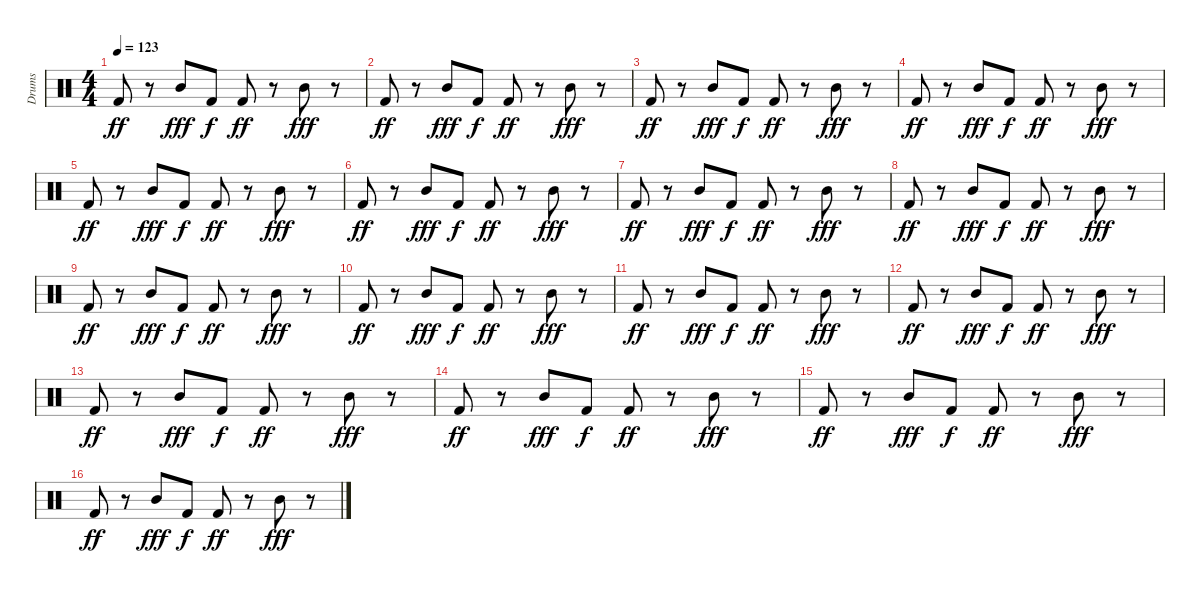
\track ("Drums" "Drums") {instrument percussion}
\staff {score}
\articulation defaults
\ts (4 4)
\tempo 123
\clef neutral
\ks c "Kick (hit) 2".8{dy ff}
r.8 "Mid Tom (hit)".8{dy fff} "Kick (hit) 2".8{dy f} "Kick (hit) 2".8{dy ff} r.8 "Mid Tom (hit)".8{dy fff} r.8 |
"Kick (hit) 2".8{dy ff} r.8 "Mid Tom (hit)".8{dy fff} "Kick (hit) 2".8{dy f} "Kick (hit) 2".8{dy ff} r.8 "Mid Tom (hit)".8{dy fff} r.8 |
"Kick (hit) 2".8{dy ff} r.8 "Mid Tom (hit)".8{dy fff} "Kick (hit) 2".8{dy f} "Kick (hit) 2".8{dy ff} r.8 "Mid Tom (hit)".8{dy fff} r.8 |
"Kick (hit) 2".8{dy ff} r.8 "Mid Tom (hit)".8{dy fff} "Kick (hit) 2".8{dy f} "Kick (hit) 2".8{dy ff} r.8 "Mid Tom (hit)".8{dy fff} r.8 |
"Kick (hit) 2".8{dy ff} r.8 "Mid Tom (hit)".8{dy fff} "Kick (hit) 2".8{dy f} "Kick (hit) 2".8{dy ff} r.8 "Mid Tom (hit)".8{dy fff} r.8 |
"Kick (hit) 2".8{dy ff} r.8 "Mid Tom (hit)".8{dy fff} "Kick (hit) 2".8{dy f} "Kick (hit) 2".8{dy ff} r.8 "Mid Tom (hit)".8{dy fff} r.8 |
"Kick (hit) 2".8{dy ff} r.8 "Mid Tom (hit)".8{dy fff} "Kick (hit) 2".8{dy f} "Kick (hit) 2".8{dy ff} r.8 "Mid Tom (hit)".8{dy fff} r.8 |
"Kick (hit) 2".8{dy ff} r.8 "Mid Tom (hit)".8{dy fff} "Kick (hit) 2".8{dy f} "Kick (hit) 2".8{dy ff} r.8 "Mid Tom (hit)".8{dy fff} r.8 |
"Kick (hit) 2".8{dy ff} r.8 "Mid Tom (hit)".8{dy fff} "Kick (hit) 2".8{dy f} "Kick (hit) 2".8{dy ff} r.8 "Mid Tom (hit)".8{dy fff} r.8 |
"Kick (hit) 2".8{dy ff} r.8 "Mid Tom (hit)".8{dy fff} "Kick (hit) 2".8{dy f} "Kick (hit) 2".8{dy ff} r.8 "Mid Tom (hit)".8{dy fff} r.8 |
"Kick (hit) 2".8{dy ff} r.8 "Mid Tom (hit)".8{dy fff} "Kick (hit) 2".8{dy f} "Kick (hit) 2".8{dy ff} r.8 "Mid Tom (hit)".8{dy fff} r.8 |
"Kick (hit) 2".8{dy ff} r.8 "Mid Tom (hit)".8{dy fff} "Kick (hit) 2".8{dy f} "Kick (hit) 2".8{dy ff} r.8 "Mid Tom (hit)".8{dy fff} r.8 |
"Kick (hit) 2".8{dy ff} r.8 "Mid Tom (hit)".8{dy fff} "Kick (hit) 2".8{dy f} "Kick (hit) 2".8{dy ff} r.8 "Mid Tom (hit)".8{dy fff} r.8 |
"Kick (hit) 2".8{dy ff} r.8 "Mid Tom (hit)".8{dy fff} "Kick (hit) 2".8{dy f} "Kick (hit) 2".8{dy ff} r.8 "Mid Tom (hit)".8{dy fff} r.8 |
"Kick (hit) 2".8{dy ff} r.8 "Mid Tom (hit)".8{dy fff} "Kick (hit) 2".8{dy f} "Kick (hit) 2".8{dy ff} r.8 "Mid Tom (hit)".8{dy fff} r.8 |
"Kick (hit) 2".8{dy ff} r.8 "Mid Tom (hit)".8{dy fff} "Kick (hit) 2".8{dy f} "Kick (hit) 2".8{dy ff volume 16} r.8 "Mid Tom (hit)".8{dy fff volume 15} r.8
